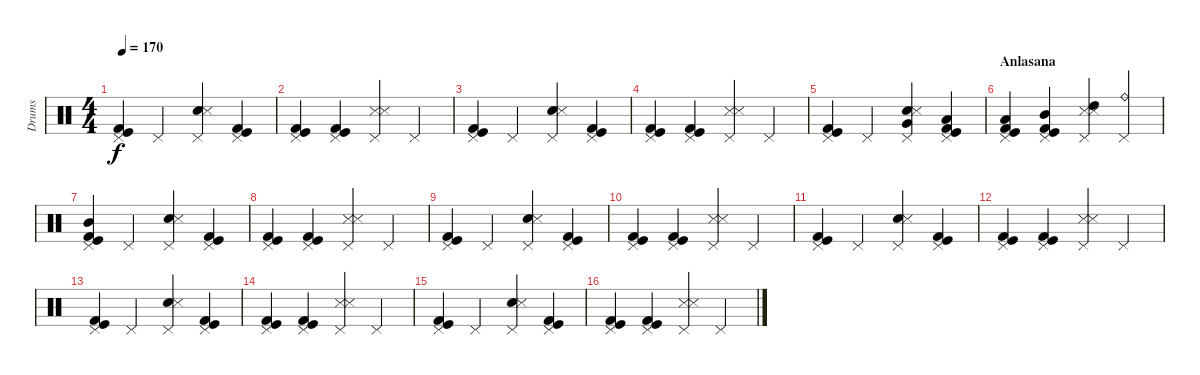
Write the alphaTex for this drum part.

\track ("Drums" "Drums") {instrument percussion}
\staff {score}
\articulation defaults
\ts (4 4)
\tempo 170
\clef neutral
\ks c
("Pedal Hi-Hat (hit)" "Kick (hit)" "Kick (hit) 2").4{dy f} "Pedal Hi-Hat (hit)".4 ("Pedal Hi-Hat (hit)" "Snare (hit) 2" "Snare (side stick) 3").4 ("Pedal Hi-Hat (hit)" "Kick (hit)" "Kick (hit) 2").4 |
("Pedal Hi-Hat (hit)" "Kick (hit)" "Kick (hit) 2").4 ("Pedal Hi-Hat (hit)" "Kick (hit)" "Kick (hit) 2").4 ("Pedal Hi-Hat (hit)" "Snare (side stick) 3" "Snare (side stick) 3").4 "Pedal Hi-Hat (hit)".4 |
("Pedal Hi-Hat (hit)" "Kick (hit)" "Kick (hit) 2").4 "Pedal Hi-Hat (hit)".4 ("Pedal Hi-Hat (hit)" "Snare (hit) 2" "Snare (side stick) 3").4 ("Pedal Hi-Hat (hit)" "Kick (hit)" "Kick (hit) 2").4 |
("Pedal Hi-Hat (hit)" "Kick (hit)" "Kick (hit) 2").4 ("Pedal Hi-Hat (hit)" "Kick (hit)" "Kick (hit) 2").4 ("Pedal Hi-Hat (hit)" "Snare (side stick) 3" "Snare (side stick) 3").4 "Pedal Hi-Hat (hit)".4 |
("Pedal Hi-Hat (hit)" "Kick (hit)" "Kick (hit) 2").4 "Pedal Hi-Hat (hit)".4 ("Pedal Hi-Hat (hit)" "Very Low Tom (hit)" "Snare (hit) 2" "Snare (side stick) 3").4 ("Pedal Hi-Hat (hit)" "Low Tom (hit)" "Kick (hit)" "Kick (hit) 2").4 |
\section ("" "Anlasana")
("Pedal Hi-Hat (hit)" "Low Tom (hit)" "Kick (hit)" "Kick (hit) 2").4 ("Pedal Hi-Hat (hit)" "Mid Tom (hit)" "Kick (hit)" "Kick (hit) 2").4 ("Pedal Hi-Hat (hit)" "High Tom (hit)" "Snare (side stick) 3" "Snare (side stick) 3").4 ("Pedal Hi-Hat (hit)" "Ride (bell)").4 |
("Pedal Hi-Hat (hit)" "Mid Tom (hit)" "Kick (hit)" "Kick (hit) 2").4 "Pedal Hi-Hat (hit)".4 ("Pedal Hi-Hat (hit)" "Snare (hit) 2" "Snare (side stick) 3").4 ("Pedal Hi-Hat (hit)" "Kick (hit)" "Kick (hit) 2").4 |
("Pedal Hi-Hat (hit)" "Kick (hit)" "Kick (hit) 2").4 ("Pedal Hi-Hat (hit)" "Kick (hit)" "Kick (hit) 2").4 ("Pedal Hi-Hat (hit)" "Snare (side stick) 3" "Snare (side stick) 3").4 "Pedal Hi-Hat (hit)".4 |
("Pedal Hi-Hat (hit)" "Kick (hit)" "Kick (hit) 2").4 "Pedal Hi-Hat (hit)".4 ("Pedal Hi-Hat (hit)" "Snare (hit) 2" "Snare (side stick) 3").4 ("Pedal Hi-Hat (hit)" "Kick (hit)" "Kick (hit) 2").4 |
("Pedal Hi-Hat (hit)" "Kick (hit)" "Kick (hit) 2").4 ("Pedal Hi-Hat (hit)" "Kick (hit)" "Kick (hit) 2").4 ("Pedal Hi-Hat (hit)" "Snare (side stick) 3" "Snare (side stick) 3").4 "Pedal Hi-Hat (hit)".4 |
("Pedal Hi-Hat (hit)" "Kick (hit)" "Kick (hit) 2").4 "Pedal Hi-Hat (hit)".4 ("Pedal Hi-Hat (hit)" "Snare (hit) 2" "Snare (side stick) 3").4 ("Pedal Hi-Hat (hit)" "Kick (hit)" "Kick (hit) 2").4 |
("Pedal Hi-Hat (hit)" "Kick (hit)" "Kick (hit) 2").4 ("Pedal Hi-Hat (hit)" "Kick (hit)" "Kick (hit) 2").4 ("Pedal Hi-Hat (hit)" "Snare (side stick) 3" "Snare (side stick) 3").4 "Pedal Hi-Hat (hit)".4 |
("Pedal Hi-Hat (hit)" "Kick (hit)" "Kick (hit) 2").4 "Pedal Hi-Hat (hit)".4 ("Pedal Hi-Hat (hit)" "Snare (hit) 2" "Snare (side stick) 3").4 ("Pedal Hi-Hat (hit)" "Kick (hit)" "Kick (hit) 2").4 |
("Pedal Hi-Hat (hit)" "Kick (hit)" "Kick (hit) 2").4 ("Pedal Hi-Hat (hit)" "Kick (hit)" "Kick (hit) 2").4 ("Pedal Hi-Hat (hit)" "Snare (side stick) 3" "Snare (side stick) 3").4 "Pedal Hi-Hat (hit)".4 |
("Pedal Hi-Hat (hit)" "Kick (hit)" "Kick (hit) 2").4 "Pedal Hi-Hat (hit)".4 ("Pedal Hi-Hat (hit)" "Snare (hit) 2" "Snare (side stick) 3").4 ("Pedal Hi-Hat (hit)" "Kick (hit)" "Kick (hit) 2").4 |
("Pedal Hi-Hat (hit)" "Kick (hit)" "Kick (hit) 2").4 ("Pedal Hi-Hat (hit)" "Kick (hit)" "Kick (hit) 2").4 ("Pedal Hi-Hat (hit)" "Snare (side stick) 3" "Snare (side stick) 3").4 "Pedal Hi-Hat (hit)".4
